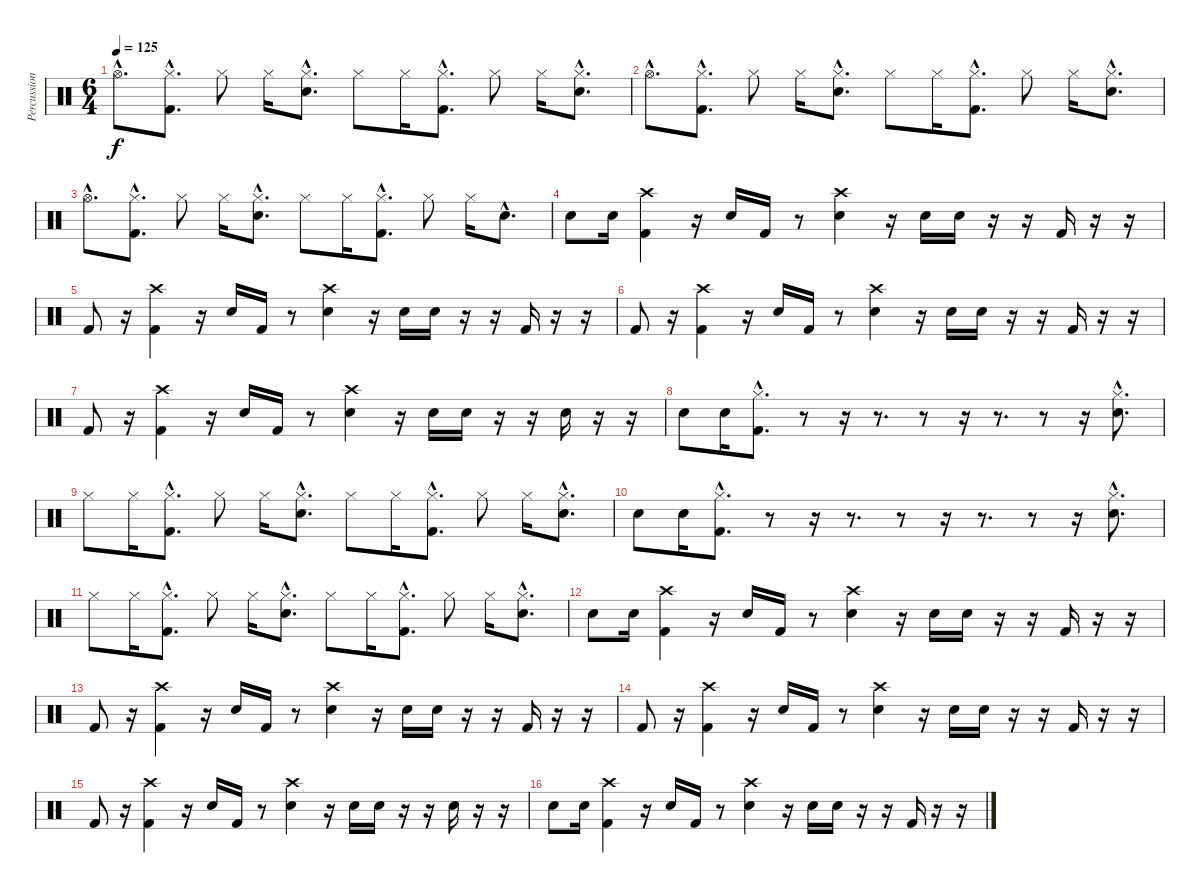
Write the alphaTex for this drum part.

\track ("Percussions" "Percussion") {instrument percussion}
\staff {score}
\articulation defaults
\ts (6 4)
\tempo 125
\clef neutral
\ks c "Hi-Hat (open)"{hac}.8{d dy f}
("Hi-Hat (closed)"{hac} "Kick (hit) 2"{hac}).8{d} "Hi-Hat (closed)".8 "Hi-Hat (closed)".16 ("Hi-Hat (closed)"{hac} "Electric Snare (hit)"{hac}).8{d} "Hi-Hat (closed)".8 "Hi-Hat (closed)".16 ("Hi-Hat (closed)"{hac} "Kick (hit) 2"{hac}).8{d} "Hi-Hat (closed)".8 "Hi-Hat (closed)".16 ("Hi-Hat (closed)"{hac} "Electric Snare (hit)"{hac}).8{d} |
"Hi-Hat (open)"{hac}.8{d} ("Hi-Hat (closed)"{hac} "Kick (hit) 2"{hac}).8{d} "Hi-Hat (closed)".8 "Hi-Hat (closed)".16 ("Hi-Hat (closed)"{hac} "Electric Snare (hit)"{hac}).8{d} "Hi-Hat (closed)".8 "Hi-Hat (closed)".16 ("Hi-Hat (closed)"{hac} "Kick (hit) 2"{hac}).8{d} "Hi-Hat (closed)".8 "Hi-Hat (closed)".16 ("Hi-Hat (closed)"{hac} "Electric Snare (hit)"{hac}).8{d} |
"Hi-Hat (open)"{hac}.8{d} ("Hi-Hat (closed)"{hac} "Kick (hit) 2"{hac}).8{d} "Hi-Hat (closed)".8 "Hi-Hat (closed)".16 ("Hi-Hat (closed)"{hac} "Electric Snare (hit)"{hac}).8{d} "Hi-Hat (closed)".8 "Hi-Hat (closed)".16 ("Hi-Hat (closed)"{hac} "Kick (hit) 2"{hac}).8{d} "Hi-Hat (closed)".8 "Hi-Hat (closed)".16 "Electric Snare (hit)"{hac}.8{d} |
"Electric Snare (hit)".8 "Electric Snare (hit)".16 ("Crash high (hit)" "Kick (hit) 2").4 r.16 "Electric Snare (hit)".16 "Kick (hit) 2".16 r.8 ("Crash high (hit)" "Electric Snare (hit)").4 r.16 "Electric Snare (hit)".16 "Electric Snare (hit)".16 r.16 r.16 "Kick (hit) 2".16 r.16 r.16 |
"Kick (hit) 2".8 r.16 ("Crash high (hit)" "Kick (hit) 2").4 r.16 "Electric Snare (hit)".16 "Kick (hit) 2".16 r.8 ("Crash high (hit)" "Electric Snare (hit)").4 r.16 "Electric Snare (hit)".16 "Electric Snare (hit)".16 r.16 r.16 "Kick (hit) 2".16 r.16 r.16 |
"Kick (hit) 2".8 r.16 ("Crash high (hit)" "Kick (hit) 2").4 r.16 "Electric Snare (hit)".16 "Kick (hit) 2".16 r.8 ("Crash high (hit)" "Electric Snare (hit)").4 r.16 "Electric Snare (hit)".16 "Electric Snare (hit)".16 r.16 r.16 "Kick (hit) 2".16 r.16 r.16 |
"Kick (hit) 2".8 r.16 ("Crash high (hit)" "Kick (hit) 2").4 r.16 "Electric Snare (hit)".16 "Kick (hit) 2".16 r.8 ("Crash high (hit)" "Electric Snare (hit)").4 r.16 "Electric Snare (hit)".16 "Electric Snare (hit)".16 r.16 r.16 "Electric Snare (hit)".16 r.16 r.16 |
"Electric Snare (hit)".8 "Electric Snare (hit)".16 ("Hi-Hat (closed)"{hac} "Kick (hit) 2"{hac}).8{d} r.8 r.16 r.8{d} r.8 r.16 r.8{d} r.8 r.16 ("Hi-Hat (closed)"{hac} "Electric Snare (hit)"{hac}).8{d} |
"Hi-Hat (closed)".8 "Hi-Hat (closed)".16 ("Hi-Hat (closed)"{hac} "Kick (hit) 2"{hac}).8{d} "Hi-Hat (closed)".8 "Hi-Hat (closed)".16 ("Hi-Hat (closed)"{hac} "Electric Snare (hit)"{hac}).8{d} "Hi-Hat (closed)".8 "Hi-Hat (closed)".16 ("Hi-Hat (closed)"{hac} "Kick (hit) 2"{hac}).8{d} "Hi-Hat (closed)".8 "Hi-Hat (closed)".16 ("Hi-Hat (closed)"{hac} "Electric Snare (hit)"{hac}).8{d} |
"Electric Snare (hit)".8 "Electric Snare (hit)".16 ("Hi-Hat (closed)"{hac} "Kick (hit) 2"{hac}).8{d} r.8 r.16 r.8{d} r.8 r.16 r.8{d} r.8 r.16 ("Hi-Hat (closed)"{hac} "Electric Snare (hit)"{hac}).8{d} |
"Hi-Hat (closed)".8 "Hi-Hat (closed)".16 ("Hi-Hat (closed)"{hac} "Kick (hit) 2"{hac}).8{d} "Hi-Hat (closed)".8 "Hi-Hat (closed)".16 ("Hi-Hat (closed)"{hac} "Electric Snare (hit)"{hac}).8{d} "Hi-Hat (closed)".8 "Hi-Hat (closed)".16 ("Hi-Hat (closed)"{hac} "Kick (hit) 2"{hac}).8{d} "Hi-Hat (closed)".8 "Hi-Hat (closed)".16 ("Hi-Hat (closed)"{hac} "Electric Snare (hit)"{hac}).8{d} |
"Electric Snare (hit)".8 "Electric Snare (hit)".16 ("Crash high (hit)" "Kick (hit) 2").4 r.16 "Electric Snare (hit)".16 "Kick (hit) 2".16 r.8 ("Crash high (hit)" "Electric Snare (hit)").4 r.16 "Electric Snare (hit)".16 "Electric Snare (hit)".16 r.16 r.16 "Kick (hit) 2".16 r.16 r.16 |
"Kick (hit) 2".8 r.16 ("Crash high (hit)" "Kick (hit) 2").4 r.16 "Electric Snare (hit)".16 "Kick (hit) 2".16 r.8 ("Crash high (hit)" "Electric Snare (hit)").4 r.16 "Electric Snare (hit)".16 "Electric Snare (hit)".16 r.16 r.16 "Kick (hit) 2".16 r.16 r.16 |
"Kick (hit) 2".8 r.16 ("Crash high (hit)" "Kick (hit) 2").4 r.16 "Electric Snare (hit)".16 "Kick (hit) 2".16 r.8 ("Crash high (hit)" "Electric Snare (hit)").4 r.16 "Electric Snare (hit)".16 "Electric Snare (hit)".16 r.16 r.16 "Kick (hit) 2".16 r.16 r.16 |
"Kick (hit) 2".8 r.16 ("Crash high (hit)" "Kick (hit) 2").4 r.16 "Electric Snare (hit)".16 "Kick (hit) 2".16 r.8 ("Crash high (hit)" "Electric Snare (hit)").4 r.16 "Electric Snare (hit)".16 "Electric Snare (hit)".16 r.16 r.16 "Electric Snare (hit)".16 r.16 r.16 |
"Electric Snare (hit)".8 "Electric Snare (hit)".16 ("Crash high (hit)" "Kick (hit) 2").4 r.16 "Electric Snare (hit)".16 "Kick (hit) 2".16 r.8 ("Crash high (hit)" "Electric Snare (hit)").4 r.16 "Electric Snare (hit)".16 "Electric Snare (hit)".16 r.16 r.16 "Kick (hit) 2".16 r.16 r.16
